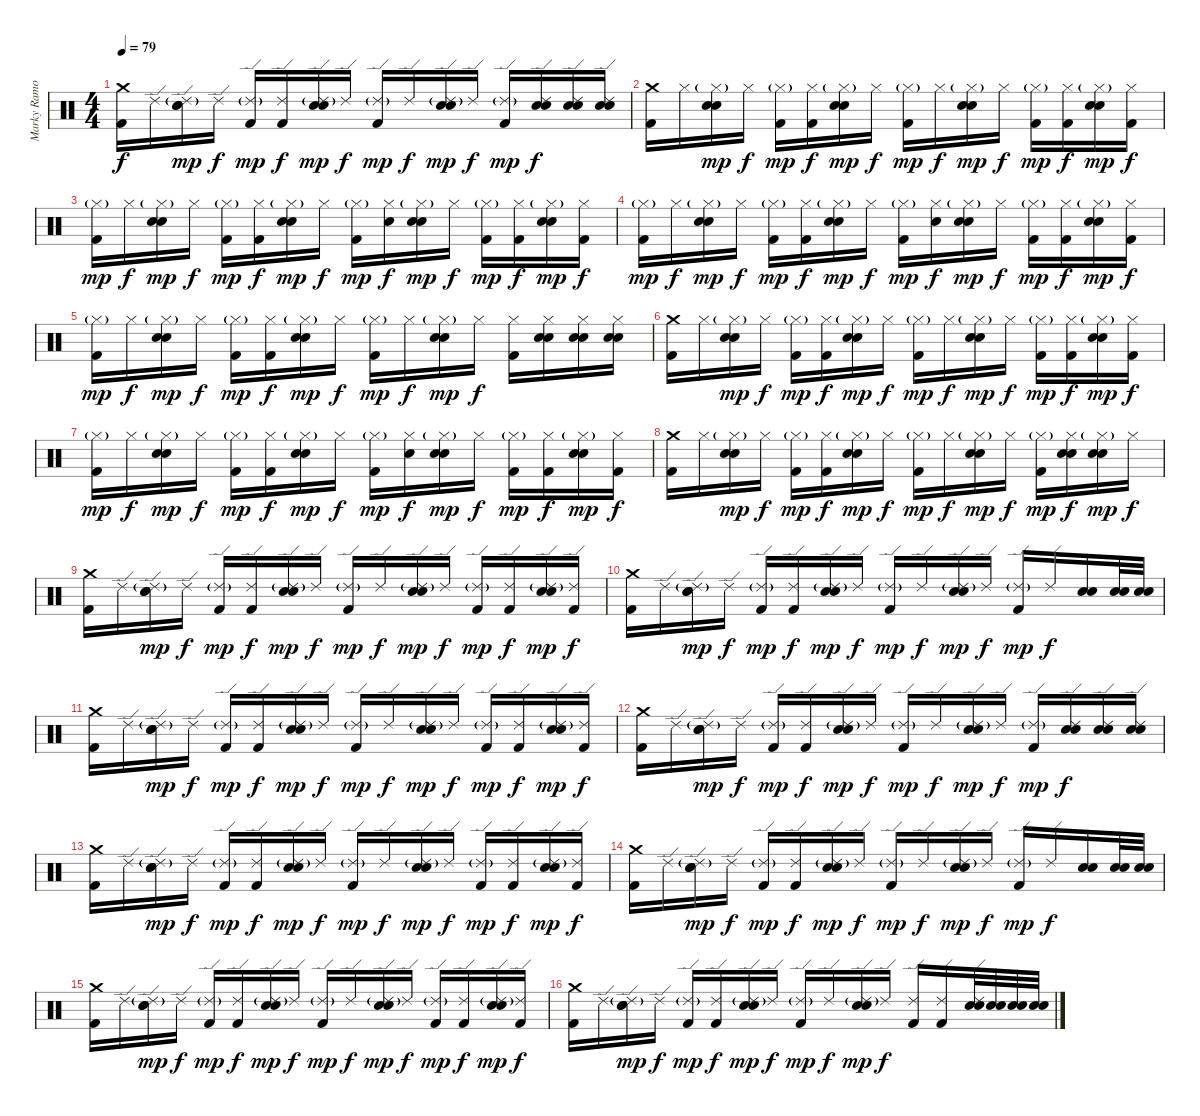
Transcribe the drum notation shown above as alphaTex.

\track ("Marky Ramone" "Marky Ramo") {instrument percussion}
\staff {score}
\articulation defaults
\ts (4 4)
\tempo 79
\clef neutral
\ks c
("Crash medium (hit)" "Kick (hit) 2").16{dy f} "Ride (edge) 2".16 ("Ride (edge) 2"{g} "Electric Snare (hit)" "Snare (hit) 2").16{dy mp} "Ride (edge) 2".16{dy f} ("Ride (edge) 2"{g} "Kick (hit) 2").16{dy mp} ("Ride (edge) 2" "Kick (hit) 2").16{dy f} ("Ride (edge) 2"{g} "Electric Snare (hit)" "Snare (hit) 2").16{dy mp} "Ride (edge) 2".16{dy f} ("Ride (edge) 2"{g} "Kick (hit) 2").16{dy mp} "Ride (edge) 2".16{dy f} ("Ride (edge) 2"{g} "Electric Snare (hit)" "Snare (hit) 2").16{dy mp} "Ride (edge) 2".16{dy f} ("Ride (edge) 2"{g} "Kick (hit) 2").16{dy mp} ("Ride (edge) 2" "Electric Snare (hit)" "Snare (hit) 2").16{dy f} ("Ride (edge) 2" "Electric Snare (hit)" "Snare (hit) 2").16 ("Ride (edge) 2" "Electric Snare (hit)" "Snare (hit) 2").16 |
("Crash medium (hit)" "Kick (hit) 2").16 "Hi-Hat (closed)".16 ("Hi-Hat (closed)"{g} "Electric Snare (hit)" "Snare (hit) 2").16{dy mp} "Hi-Hat (closed)".16{dy f} ("Hi-Hat (closed)"{g} "Kick (hit) 2").16{dy mp} ("Hi-Hat (closed)" "Kick (hit) 2").16{dy f} ("Hi-Hat (closed)"{g} "Electric Snare (hit)" "Snare (hit) 2").16{dy mp} "Hi-Hat (closed)".16{dy f} ("Hi-Hat (closed)"{g} "Kick (hit) 2").16{dy mp} "Hi-Hat (closed)".16{dy f} ("Hi-Hat (closed)"{g} "Electric Snare (hit)" "Snare (hit) 2").16{dy mp} "Hi-Hat (closed)".16{dy f} ("Hi-Hat (closed)"{g} "Kick (hit) 2").16{dy mp} ("Hi-Hat (closed)" "Kick (hit) 2").16{dy f} ("Hi-Hat (closed)"{g} "Electric Snare (hit)" "Snare (hit) 2").16{dy mp} ("Hi-Hat (closed)" "Kick (hit) 2").16{dy f} |
("Hi-Hat (closed)"{g} "Kick (hit) 2").16{dy mp} "Hi-Hat (closed)".16{dy f} ("Hi-Hat (closed)"{g} "Electric Snare (hit)" "Snare (hit) 2").16{dy mp} "Hi-Hat (closed)".16{dy f} ("Hi-Hat (closed)"{g} "Kick (hit) 2").16{dy mp} ("Hi-Hat (closed)" "Kick (hit) 2").16{dy f} ("Hi-Hat (closed)"{g} "Electric Snare (hit)" "Snare (hit) 2").16{dy mp} "Hi-Hat (closed)".16{dy f} ("Hi-Hat (closed)"{g} "Kick (hit) 2").16{dy mp} ("Hi-Hat (closed)" "Snare (hit)").16{dy f} ("Hi-Hat (closed)"{g} "Electric Snare (hit)" "Snare (hit) 2").16{dy mp} "Hi-Hat (closed)".16{dy f} ("Hi-Hat (closed)"{g} "Kick (hit) 2").16{dy mp} ("Hi-Hat (closed)" "Kick (hit) 2").16{dy f} ("Hi-Hat (closed)"{g} "Electric Snare (hit)" "Snare (hit) 2").16{dy mp} ("Hi-Hat (closed)" "Kick (hit) 2").16{dy f} |
("Hi-Hat (closed)"{g} "Kick (hit) 2").16{dy mp} "Hi-Hat (closed)".16{dy f} ("Hi-Hat (closed)"{g} "Electric Snare (hit)" "Snare (hit) 2").16{dy mp} "Hi-Hat (closed)".16{dy f} ("Hi-Hat (closed)"{g} "Kick (hit) 2").16{dy mp} ("Hi-Hat (closed)" "Kick (hit) 2").16{dy f} ("Hi-Hat (closed)"{g} "Electric Snare (hit)" "Snare (hit) 2").16{dy mp} "Hi-Hat (closed)".16{dy f} ("Hi-Hat (closed)"{g} "Kick (hit) 2").16{dy mp} ("Hi-Hat (closed)" "Snare (hit)").16{dy f} ("Hi-Hat (closed)"{g} "Electric Snare (hit)" "Snare (hit) 2").16{dy mp} "Hi-Hat (closed)".16{dy f} ("Hi-Hat (closed)"{g} "Kick (hit) 2").16{dy mp} ("Hi-Hat (closed)" "Kick (hit) 2").16{dy f} ("Hi-Hat (closed)"{g} "Electric Snare (hit)" "Snare (hit) 2").16{dy mp} ("Hi-Hat (closed)" "Kick (hit) 2").16{dy f} |
("Hi-Hat (closed)"{g} "Kick (hit) 2").16{dy mp} "Hi-Hat (closed)".16{dy f} ("Hi-Hat (closed)"{g} "Electric Snare (hit)" "Snare (hit) 2").16{dy mp} "Hi-Hat (closed)".16{dy f} ("Hi-Hat (closed)"{g} "Kick (hit) 2").16{dy mp} ("Hi-Hat (closed)" "Kick (hit) 2").16{dy f} ("Hi-Hat (closed)"{g} "Electric Snare (hit)" "Snare (hit) 2").16{dy mp} "Hi-Hat (closed)".16{dy f} ("Hi-Hat (closed)"{g} "Kick (hit) 2").16{dy mp} "Hi-Hat (closed)".16{dy f} ("Hi-Hat (closed)"{g} "Electric Snare (hit)" "Snare (hit) 2").16{dy mp} "Hi-Hat (closed)".16{dy f} ("Hi-Hat (closed)" "Kick (hit) 2").16 ("Hi-Hat (closed)" "Electric Snare (hit)" "Snare (hit) 2").16 ("Hi-Hat (closed)" "Electric Snare (hit)" "Snare (hit) 2").16 ("Hi-Hat (closed)" "Electric Snare (hit)" "Snare (hit) 2").16 |
("Crash medium (hit)" "Kick (hit) 2").16 "Hi-Hat (closed)".16 ("Hi-Hat (closed)"{g} "Electric Snare (hit)" "Snare (hit) 2").16{dy mp} "Hi-Hat (closed)".16{dy f} ("Hi-Hat (closed)"{g} "Kick (hit) 2").16{dy mp} ("Hi-Hat (closed)" "Kick (hit) 2").16{dy f} ("Hi-Hat (closed)"{g} "Electric Snare (hit)" "Snare (hit) 2").16{dy mp} "Hi-Hat (closed)".16{dy f} ("Hi-Hat (closed)"{g} "Kick (hit) 2").16{dy mp} "Hi-Hat (closed)".16{dy f} ("Hi-Hat (closed)"{g} "Electric Snare (hit)" "Snare (hit) 2").16{dy mp} "Hi-Hat (closed)".16{dy f} ("Hi-Hat (closed)"{g} "Kick (hit) 2").16{dy mp} ("Hi-Hat (closed)" "Kick (hit) 2").16{dy f} ("Hi-Hat (closed)"{g} "Electric Snare (hit)" "Snare (hit) 2").16{dy mp} ("Hi-Hat (closed)" "Kick (hit) 2").16{dy f} |
("Hi-Hat (closed)"{g} "Kick (hit) 2").16{dy mp} "Hi-Hat (closed)".16{dy f} ("Hi-Hat (closed)"{g} "Electric Snare (hit)" "Snare (hit) 2").16{dy mp} "Hi-Hat (closed)".16{dy f} ("Hi-Hat (closed)"{g} "Kick (hit) 2").16{dy mp} ("Hi-Hat (closed)" "Kick (hit) 2").16{dy f} ("Hi-Hat (closed)"{g} "Electric Snare (hit)" "Snare (hit) 2").16{dy mp} "Hi-Hat (closed)".16{dy f} ("Hi-Hat (closed)"{g} "Kick (hit) 2").16{dy mp} ("Hi-Hat (closed)" "Snare (hit)").16{dy f} ("Hi-Hat (closed)"{g} "Electric Snare (hit)" "Snare (hit) 2").16{dy mp} "Hi-Hat (closed)".16{dy f} ("Hi-Hat (closed)"{g} "Kick (hit) 2").16{dy mp} ("Hi-Hat (closed)" "Kick (hit) 2").16{dy f} ("Hi-Hat (closed)"{g} "Electric Snare (hit)" "Snare (hit) 2").16{dy mp} ("Hi-Hat (closed)" "Kick (hit) 2").16{dy f} |
("Crash medium (hit)" "Kick (hit) 2").16 "Hi-Hat (closed)".16 ("Hi-Hat (closed)"{g} "Electric Snare (hit)" "Snare (hit) 2").16{dy mp} "Hi-Hat (closed)".16{dy f} ("Hi-Hat (closed)"{g} "Kick (hit) 2").16{dy mp} ("Hi-Hat (closed)" "Kick (hit) 2").16{dy f} ("Hi-Hat (closed)"{g} "Electric Snare (hit)" "Snare (hit) 2").16{dy mp} "Hi-Hat (closed)".16{dy f} ("Hi-Hat (closed)"{g} "Kick (hit) 2").16{dy mp} "Hi-Hat (closed)".16{dy f} ("Hi-Hat (closed)"{g} "Electric Snare (hit)" "Snare (hit) 2").16{dy mp} "Hi-Hat (closed)".16{dy f} ("Hi-Hat (closed)"{g} "Kick (hit) 2").16{dy mp} ("Hi-Hat (closed)" "Electric Snare (hit)" "Snare (hit) 2").16{dy f} ("Hi-Hat (closed)"{g} "Electric Snare (hit)" "Snare (hit) 2").16{dy mp} "Hi-Hat (closed)".16{dy f} |
("Crash medium (hit)" "Kick (hit) 2").16 "Ride (edge) 2".16 ("Ride (edge) 2"{g} "Electric Snare (hit)" "Snare (hit) 2").16{dy mp} "Ride (edge) 2".16{dy f} ("Ride (edge) 2"{g} "Kick (hit) 2").16{dy mp} ("Ride (edge) 2" "Kick (hit) 2").16{dy f} ("Ride (edge) 2"{g} "Electric Snare (hit)" "Snare (hit) 2").16{dy mp} "Ride (edge) 2".16{dy f} ("Ride (edge) 2"{g} "Kick (hit) 2").16{dy mp} "Ride (edge) 2".16{dy f} ("Ride (edge) 2"{g} "Electric Snare (hit)" "Snare (hit) 2").16{dy mp} "Ride (edge) 2".16{dy f} ("Ride (edge) 2"{g} "Kick (hit) 2").16{dy mp} ("Ride (edge) 2" "Kick (hit) 2").16{dy f} ("Ride (edge) 2"{g} "Electric Snare (hit)" "Snare (hit) 2").16{dy mp} ("Ride (edge) 2" "Kick (hit) 2").16{dy f} |
("Crash medium (hit)" "Kick (hit) 2").16 "Ride (edge) 2".16 ("Ride (edge) 2"{g} "Electric Snare (hit)" "Snare (hit) 2").16{dy mp} "Ride (edge) 2".16{dy f} ("Ride (edge) 2"{g} "Kick (hit) 2").16{dy mp} ("Ride (edge) 2" "Kick (hit) 2").16{dy f} ("Ride (edge) 2"{g} "Electric Snare (hit)" "Snare (hit) 2").16{dy mp} "Ride (edge) 2".16{dy f} ("Ride (edge) 2"{g} "Kick (hit) 2").16{dy mp} "Ride (edge) 2".16{dy f} ("Ride (edge) 2"{g} "Electric Snare (hit)" "Snare (hit) 2").16{dy mp} "Ride (edge) 2".16{dy f} ("Ride (edge) 2"{g} "Kick (hit) 2").16{dy mp} "Ride (edge) 2".16{dy f} ("Electric Snare (hit)" "Snare (hit) 2").16 ("Electric Snare (hit)" "Snare (hit) 2").32 ("Electric Snare (hit)" "Snare (hit) 2").32 |
("Crash medium (hit)" "Kick (hit) 2").16 "Ride (edge) 2".16 ("Ride (edge) 2"{g} "Electric Snare (hit)" "Snare (hit) 2").16{dy mp} "Ride (edge) 2".16{dy f} ("Ride (edge) 2"{g} "Kick (hit) 2").16{dy mp} ("Ride (edge) 2" "Kick (hit) 2").16{dy f} ("Ride (edge) 2"{g} "Electric Snare (hit)" "Snare (hit) 2").16{dy mp} "Ride (edge) 2".16{dy f} ("Ride (edge) 2"{g} "Kick (hit) 2").16{dy mp} "Ride (edge) 2".16{dy f} ("Ride (edge) 2"{g} "Electric Snare (hit)" "Snare (hit) 2").16{dy mp} "Ride (edge) 2".16{dy f} ("Ride (edge) 2"{g} "Kick (hit) 2").16{dy mp} ("Ride (edge) 2" "Kick (hit) 2").16{dy f} ("Ride (edge) 2"{g} "Electric Snare (hit)" "Snare (hit) 2").16{dy mp} ("Ride (edge) 2" "Kick (hit) 2").16{dy f} |
("Crash medium (hit)" "Kick (hit) 2").16 "Ride (edge) 2".16 ("Ride (edge) 2"{g} "Electric Snare (hit)" "Snare (hit) 2").16{dy mp} "Ride (edge) 2".16{dy f} ("Ride (edge) 2"{g} "Kick (hit) 2").16{dy mp} ("Ride (edge) 2" "Kick (hit) 2").16{dy f} ("Ride (edge) 2"{g} "Electric Snare (hit)" "Snare (hit) 2").16{dy mp} "Ride (edge) 2".16{dy f} ("Ride (edge) 2"{g} "Kick (hit) 2").16{dy mp} "Ride (edge) 2".16{dy f} ("Ride (edge) 2"{g} "Electric Snare (hit)" "Snare (hit) 2").16{dy mp} "Ride (edge) 2".16{dy f} ("Ride (edge) 2"{g} "Kick (hit) 2").16{dy mp} ("Ride (edge) 2" "Electric Snare (hit)" "Snare (hit) 2").16{dy f} ("Ride (edge) 2" "Electric Snare (hit)" "Snare (hit) 2").16 ("Ride (edge) 2" "Electric Snare (hit)" "Snare (hit) 2").16 |
("Crash medium (hit)" "Kick (hit) 2").16 "Ride (edge) 2".16 ("Ride (edge) 2"{g} "Electric Snare (hit)" "Snare (hit) 2").16{dy mp} "Ride (edge) 2".16{dy f} ("Ride (edge) 2"{g} "Kick (hit) 2").16{dy mp} ("Ride (edge) 2" "Kick (hit) 2").16{dy f} ("Ride (edge) 2"{g} "Electric Snare (hit)" "Snare (hit) 2").16{dy mp} "Ride (edge) 2".16{dy f} ("Ride (edge) 2"{g} "Kick (hit) 2").16{dy mp} "Ride (edge) 2".16{dy f} ("Ride (edge) 2"{g} "Electric Snare (hit)" "Snare (hit) 2").16{dy mp} "Ride (edge) 2".16{dy f} ("Ride (edge) 2"{g} "Kick (hit) 2").16{dy mp} ("Ride (edge) 2" "Kick (hit) 2").16{dy f} ("Ride (edge) 2"{g} "Electric Snare (hit)" "Snare (hit) 2").16{dy mp} ("Ride (edge) 2" "Kick (hit) 2").16{dy f} |
("Crash medium (hit)" "Kick (hit) 2").16 "Ride (edge) 2".16 ("Ride (edge) 2"{g} "Electric Snare (hit)" "Snare (hit) 2").16{dy mp} "Ride (edge) 2".16{dy f} ("Ride (edge) 2"{g} "Kick (hit) 2").16{dy mp} ("Ride (edge) 2" "Kick (hit) 2").16{dy f} ("Ride (edge) 2"{g} "Electric Snare (hit)" "Snare (hit) 2").16{dy mp} "Ride (edge) 2".16{dy f} ("Ride (edge) 2"{g} "Kick (hit) 2").16{dy mp} "Ride (edge) 2".16{dy f} ("Ride (edge) 2"{g} "Electric Snare (hit)" "Snare (hit) 2").16{dy mp} "Ride (edge) 2".16{dy f} ("Ride (edge) 2"{g} "Kick (hit) 2").16{dy mp} "Ride (edge) 2".16{dy f} ("Electric Snare (hit)" "Snare (hit) 2").16 ("Electric Snare (hit)" "Snare (hit) 2").32 ("Electric Snare (hit)" "Snare (hit) 2").32 |
("Crash medium (hit)" "Kick (hit) 2").16 "Ride (edge) 2".16 ("Ride (edge) 2"{g} "Electric Snare (hit)" "Snare (hit) 2").16{dy mp} "Ride (edge) 2".16{dy f} ("Ride (edge) 2"{g} "Kick (hit) 2").16{dy mp} ("Ride (edge) 2" "Kick (hit) 2").16{dy f} ("Ride (edge) 2"{g} "Electric Snare (hit)" "Snare (hit) 2").16{dy mp} "Ride (edge) 2".16{dy f} ("Ride (edge) 2"{g} "Kick (hit) 2").16{dy mp} "Ride (edge) 2".16{dy f} ("Ride (edge) 2"{g} "Electric Snare (hit)" "Snare (hit) 2").16{dy mp} "Ride (edge) 2".16{dy f} ("Ride (edge) 2"{g} "Kick (hit) 2").16{dy mp} ("Ride (edge) 2" "Kick (hit) 2").16{dy f} ("Ride (edge) 2"{g} "Electric Snare (hit)" "Snare (hit) 2").16{dy mp} ("Ride (edge) 2" "Kick (hit) 2").16{dy f} |
("Crash medium (hit)" "Kick (hit) 2").16 "Ride (edge) 2".16 ("Ride (edge) 2"{g} "Electric Snare (hit)" "Snare (hit) 2").16{dy mp} "Ride (edge) 2".16{dy f} ("Ride (edge) 2"{g} "Kick (hit) 2").16{dy mp} ("Ride (edge) 2" "Kick (hit) 2").16{dy f} ("Ride (edge) 2"{g} "Electric Snare (hit)" "Snare (hit) 2").16{dy mp} "Ride (edge) 2".16{dy f} ("Ride (edge) 2"{g} "Kick (hit) 2").16{dy mp} "Ride (edge) 2".16{dy f} ("Ride (edge) 2"{g} "Electric Snare (hit)" "Snare (hit) 2").16{dy mp} "Ride (edge) 2".16{dy f} ("Ride (edge) 2" "Kick (hit) 2").16 ("Ride (edge) 2" "Kick (hit) 2").16 ("Ride (edge) 2" "Electric Snare (hit)" "Snare (hit) 2").32 ("Electric Snare (hit)" "Snare (hit) 2").32 ("Electric Snare (hit)" "Snare (hit) 2").32 ("Electric Snare (hit)" "Snare (hit) 2").32
